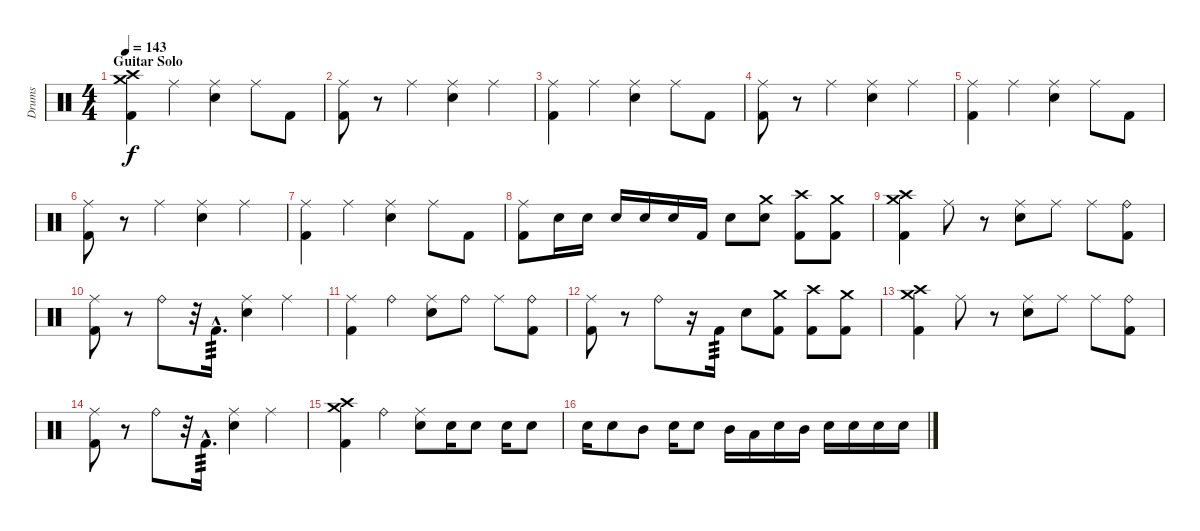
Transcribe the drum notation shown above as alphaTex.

\track ("Drums" "Drums") {instrument percussion}
\staff {score}
\articulation defaults
\ts (4 4)
\section ("" "Guitar Solo")
\tempo 143
\clef neutral
\ks c
("Crash medium (hit)" "Crash high (hit)" "Kick (hit) 2").4{dy f} "Ride (middle)".4 ("Ride (middle)" "Electric Snare (hit)").4 "Ride (middle)".8 "Kick (hit) 2".8 |
("Ride (middle)" "Kick (hit) 2").8 r.8 "Ride (middle)".4 ("Ride (middle)" "Electric Snare (hit)").4 "Ride (middle)".4 |
("Ride (middle)" "Kick (hit) 2").4 "Ride (middle)".4 ("Ride (middle)" "Electric Snare (hit)").4 "Ride (middle)".8 "Kick (hit) 2".8 |
("Ride (middle)" "Kick (hit) 2").8 r.8 "Ride (middle)".4 ("Ride (middle)" "Electric Snare (hit)").4 "Ride (middle)".4 |
("Ride (middle)" "Kick (hit) 2").4 "Ride (middle)".4 ("Ride (middle)" "Electric Snare (hit)").4 "Ride (middle)".8 "Kick (hit) 2".8 |
("Ride (middle)" "Kick (hit) 2").8 r.8 "Ride (middle)".4 ("Ride (middle)" "Electric Snare (hit)").4 "Ride (middle)".4 |
("Ride (middle)" "Kick (hit) 2").4 "Ride (middle)".4 ("Ride (middle)" "Electric Snare (hit)").4 "Ride (middle)".8 "Kick (hit) 2".8 |
("Ride (middle)" "Kick (hit) 2").8 "Electric Snare (hit)".16 "Electric Snare (hit)".16 "Electric Snare (hit)".16 "Electric Snare (hit)".16 "Snare (hit) 2".16 "Kick (hit) 2".16 "Electric Snare (hit)".8 ("Crash medium (hit)" "Snare (hit) 2").8 ("Crash high (hit)" "Kick (hit) 2").8 ("Crash medium (hit)" "Kick (hit) 2").8 |
("Crash medium (hit)" "Crash high (hit)" "Kick (hit) 2").4 "Ride (middle)".8 r.8 ("Ride (middle)" "Electric Snare (hit)").8 "Ride (middle)".8 "Ride (middle)".8 ("Ride (bell)" "Kick (hit) 2").8 |
("Ride (middle)" "Kick (hit) 2").8 r.8 "Ride (bell)".8 r.32 "Kick (hit) 2"{hac}.16{d tp 3} ("Ride (middle)" "Electric Snare (hit)").4 "Ride (middle)".4 |
("Ride (middle)" "Kick (hit) 2").4 "Ride (bell)".4 ("Ride (middle)" "Electric Snare (hit)").8 "Ride (bell)".8 "Ride (middle)".8 ("Ride (bell)" "Kick (hit) 2").8 |
("Ride (middle)" "Kick (hit) 2").8 r.8 "Ride (bell)".8 r.16 "Kick (hit) 2".16{tp 3} "Electric Snare (hit)".8 ("Crash medium (hit)" "Kick (hit) 2").8 ("Crash high (hit)" "Kick (hit) 2").8 ("Crash medium (hit)" "Kick (hit) 2").8 |
("Crash medium (hit)" "Crash high (hit)" "Kick (hit) 2").4 "Ride (middle)".8 r.8 ("Ride (middle)" "Electric Snare (hit)").8 "Ride (middle)".8 "Ride (middle)".8 ("Ride (bell)" "Kick (hit) 2").8 |
("Ride (middle)" "Kick (hit) 2").8 r.8 "Ride (bell)".8 r.32 "Kick (hit) 2"{hac}.16{d tp 3} ("Ride (middle)" "Electric Snare (hit)").4 "Ride (middle)".4 |
("Crash medium (hit)" "Crash high (hit)" "Kick (hit) 2").4 "Ride (bell)".4 ("Ride (middle)" "Electric Snare (hit)").8 "Electric Snare (hit)".16 "Electric Snare (hit)".8 "Electric Snare (hit)".16 "Electric Snare (hit)".8 |
"Electric Snare (hit)".16 "Electric Snare (hit)".8 "Mid Tom (hit)".8 "Electric Snare (hit)".16 "Electric Snare (hit)".8 "Mid Tom (hit)".16 "Low Tom (hit)".16 "Electric Snare (hit)".16 "Mid Tom (hit)".16 "Electric Snare (hit)".16 "Electric Snare (hit)".16 "Electric Snare (hit)".16 "Electric Snare (hit)".16
